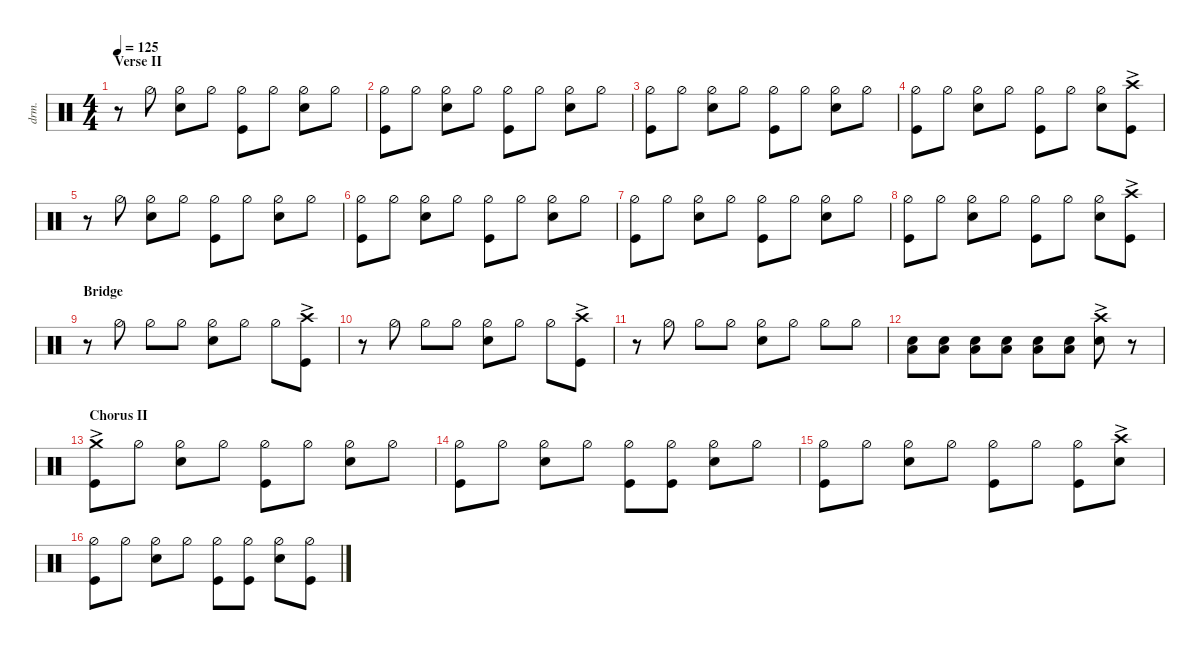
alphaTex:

\defaultSystemsLayout 4
\hideDynamics
\bracketExtendMode nobrackets
\track ("Drums" "drm.") {defaultSystemsLayout 4 multiBarRest instrument percussion}
\staff {score}
\articulation defaults
\ts (4 4)
\section ("" "Verse II")
\tempo 125
\clef neutral
\ks c
r.8{dy f beam Down} "Hi-Hat (half)".8{beam Down} ("Snare (hit) 2" "Hi-Hat (half)").8{beam Down} "Hi-Hat (half)".8{beam Down} ("Hi-Hat (half)" "Kick (hit)").8{beam Down} "Hi-Hat (half)".8{beam Down} ("Hi-Hat (half)" "Snare (hit) 2").8{beam Down} "Hi-Hat (half)".8{beam Down} |
("Hi-Hat (half)" "Kick (hit)").8{beam Down} "Hi-Hat (half)".8{beam Down} ("Hi-Hat (half)" "Snare (hit) 2").8{beam Down} "Hi-Hat (half)".8{beam Down} ("Hi-Hat (half)" "Kick (hit)").8{beam Down} "Hi-Hat (half)".8{beam Down} ("Hi-Hat (half)" "Snare (hit) 2").8{beam Down} "Hi-Hat (half)".8{beam Down} |
("Hi-Hat (half)" "Kick (hit)").8{beam Down} "Hi-Hat (half)".8{beam Down} ("Hi-Hat (half)" "Snare (hit) 2").8{beam Down} "Hi-Hat (half)".8{beam Down} ("Hi-Hat (half)" "Kick (hit)").8{beam Down} "Hi-Hat (half)".8{beam Down} ("Hi-Hat (half)" "Snare (hit) 2").8{beam Down} "Hi-Hat (half)".8{beam Down} |
("Hi-Hat (half)" "Kick (hit)").8{beam Down} "Hi-Hat (half)".8{beam Down} ("Hi-Hat (half)" "Snare (hit) 2").8{beam Down} "Hi-Hat (half)".8{beam Down} ("Hi-Hat (half)" "Kick (hit)").8{beam Down} "Hi-Hat (half)".8{beam Down} ("Hi-Hat (half)" "Snare (hit) 2").8{beam Down} ("Crash high (hit)"{ac} "Kick (hit)").8{beam Down} |
r.8{beam Down} "Hi-Hat (half)".8{beam Down} ("Snare (hit) 2" "Hi-Hat (half)").8{beam Down} "Hi-Hat (half)".8{beam Down} ("Hi-Hat (half)" "Kick (hit)").8{beam Down} "Hi-Hat (half)".8{beam Down} ("Hi-Hat (half)" "Snare (hit) 2").8{beam Down} "Hi-Hat (half)".8{beam Down} |
("Hi-Hat (half)" "Kick (hit)").8{beam Down} "Hi-Hat (half)".8{beam Down} ("Hi-Hat (half)" "Snare (hit) 2").8{beam Down} "Hi-Hat (half)".8{beam Down} ("Hi-Hat (half)" "Kick (hit)").8{beam Down} "Hi-Hat (half)".8{beam Down} ("Hi-Hat (half)" "Snare (hit) 2").8{beam Down} "Hi-Hat (half)".8{beam Down} |
("Hi-Hat (half)" "Kick (hit)").8{beam Down} "Hi-Hat (half)".8{beam Down} ("Hi-Hat (half)" "Snare (hit) 2").8{beam Down} "Hi-Hat (half)".8{beam Down} ("Hi-Hat (half)" "Kick (hit)").8{beam Down} "Hi-Hat (half)".8{beam Down} ("Hi-Hat (half)" "Snare (hit) 2").8{beam Down} "Hi-Hat (half)".8{beam Down} |
("Hi-Hat (half)" "Kick (hit)").8{beam Down} "Hi-Hat (half)".8{beam Down} ("Hi-Hat (half)" "Snare (hit) 2").8{beam Down} "Hi-Hat (half)".8{beam Down} ("Hi-Hat (half)" "Kick (hit)").8{beam Down} "Hi-Hat (half)".8{beam Down} ("Hi-Hat (half)" "Snare (hit) 2").8{beam Down} ("Crash high (hit)"{ac} "Kick (hit)").8{beam Down} |
\section ("" "Bridge")
r.8{beam Down} "Hi-Hat (half)".8{beam Down} "Hi-Hat (half)".8{beam Down} "Hi-Hat (half)".8{beam Down} ("Hi-Hat (half)" "Snare (hit) 2").8{beam Down} "Hi-Hat (half)".8{beam Down} "Hi-Hat (half)".8{beam Down} ("Crash high (hit)"{ac} "Kick (hit)").8{beam Down} |
r.8{beam Down} "Hi-Hat (half)".8{beam Down} "Hi-Hat (half)".8{beam Down} "Hi-Hat (half)".8{beam Down} ("Hi-Hat (half)" "Snare (hit) 2").8{beam Down} "Hi-Hat (half)".8{beam Down} "Hi-Hat (half)".8{beam Down} ("Crash high (hit)"{ac} "Kick (hit)").8{beam Down} |
r.8{beam Down} "Hi-Hat (half)".8{beam Down} "Hi-Hat (half)".8{beam Down} "Hi-Hat (half)".8{beam Down} ("Hi-Hat (half)" "Snare (hit) 2").8{beam Down} "Hi-Hat (half)".8{beam Down} "Hi-Hat (half)".8{beam Down} "Hi-Hat (half)".8{beam Down} |
("Low Tom (hit)" "Snare (hit) 2").8{beam Down} ("Low Tom (hit)" "Snare (hit) 2").8{beam Down} ("Low Tom (hit)" "Snare (hit) 2").8{beam Down} ("Low Tom (hit)" "Snare (hit) 2").8{beam Down} ("Low Tom (hit)" "Snare (hit) 2").8{beam Down} ("Low Tom (hit)" "Snare (hit) 2").8{beam Down} ("Snare (hit) 2" "Crash high (hit)"{ac}).8{beam Down} r.8{beam Down} |
\section ("" "Chorus II")
("Kick (hit)" "Crash medium (hit)"{ac}).8{beam Down} "Hi-Hat (half)".8{beam Down} ("Hi-Hat (half)" "Snare (hit) 2").8{beam Down} "Hi-Hat (half)".8{beam Down} ("Hi-Hat (half)" "Kick (hit)").8{beam Down} "Hi-Hat (half)".8{beam Down} ("Hi-Hat (half)" "Snare (hit) 2").8{beam Down} "Hi-Hat (half)".8{beam Down} |
("Hi-Hat (half)" "Kick (hit)").8{beam Down} "Hi-Hat (half)".8{beam Down} ("Hi-Hat (half)" "Snare (hit) 2").8{beam Down} "Hi-Hat (half)".8{beam Down} ("Hi-Hat (half)" "Kick (hit)").8{beam Down} ("Hi-Hat (half)" "Kick (hit)").8{beam Down} ("Hi-Hat (half)" "Snare (hit) 2").8{beam Down} "Hi-Hat (half)".8{beam Down} |
("Hi-Hat (half)" "Kick (hit)").8{beam Down} "Hi-Hat (half)".8{beam Down} ("Hi-Hat (half)" "Snare (hit) 2").8{beam Down} "Hi-Hat (half)".8{beam Down} ("Hi-Hat (half)" "Kick (hit)").8{beam Down} "Hi-Hat (half)".8{beam Down} ("Hi-Hat (half)" "Kick (hit)").8{beam Down} ("Snare (hit) 2" "Crash high (hit)"{ac}).8{beam Down} |
("Hi-Hat (half)" "Kick (hit)").8{beam Down} "Hi-Hat (half)".8{beam Down} ("Hi-Hat (half)" "Snare (hit) 2").8{beam Down} "Hi-Hat (half)".8{beam Down} ("Hi-Hat (half)" "Kick (hit)").8{beam Down} ("Hi-Hat (half)" "Kick (hit)").8{beam Down} ("Hi-Hat (half)" "Snare (hit) 2").8{beam Down} ("Hi-Hat (half)" "Kick (hit)").8{beam Down}
